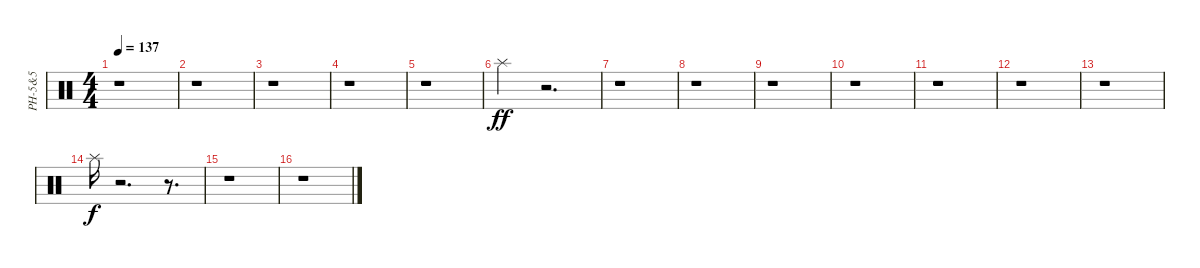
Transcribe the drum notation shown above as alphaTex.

\track ("PH-5&5" "PH-5&5") {instrument percussion}
\staff {score}
\articulation defaults
\ts (4 4)
\tempo 137
\clef neutral
\ks c
r.1{dy ff} |
r.1 |
r.1 |
r.1 |
r.1 |
"Splash (hit)".4 r.2{d} |
r.1 |
r.1 |
r.1 |
r.1 |
r.1 |
r.1 |
r.1 |
"Splash (hit)".16{dy f} r.2{d} r.8{d} |
r.1 |
r.1
